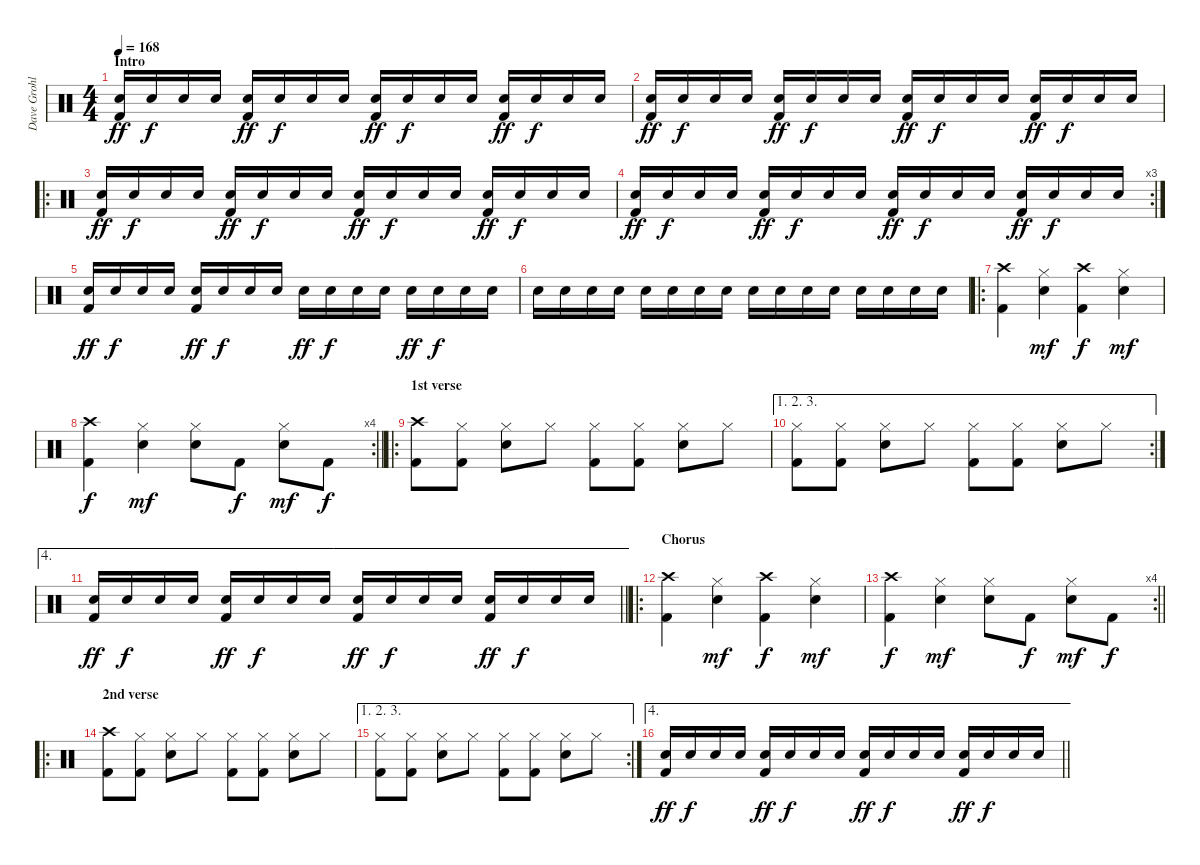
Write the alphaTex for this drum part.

\track ("Dave Grohl - Drums" "Dave Grohl") {instrument percussion}
\staff {score}
\articulation defaults
\ts (4 4)
\section ("" "Intro")
\tempo 168
\clef neutral
\ks c
("Electric Snare (hit)" "Kick (hit) 2").16{dy ff volume 12} "Electric Snare (hit)".16{dy f} "Electric Snare (hit)".16 "Electric Snare (hit)".16 ("Electric Snare (hit)" "Kick (hit) 2").16{dy ff} "Electric Snare (hit)".16{dy f} "Electric Snare (hit)".16 "Electric Snare (hit)".16 ("Electric Snare (hit)" "Kick (hit) 2").16{dy ff} "Electric Snare (hit)".16{dy f} "Electric Snare (hit)".16 "Electric Snare (hit)".16 ("Electric Snare (hit)" "Kick (hit) 2").16{dy ff} "Electric Snare (hit)".16{dy f} "Electric Snare (hit)".16 "Electric Snare (hit)".16 |
("Electric Snare (hit)" "Kick (hit) 2").16{dy ff} "Electric Snare (hit)".16{dy f} "Electric Snare (hit)".16 "Electric Snare (hit)".16 ("Electric Snare (hit)" "Kick (hit) 2").16{dy ff} "Electric Snare (hit)".16{dy f} "Electric Snare (hit)".16 "Electric Snare (hit)".16 ("Electric Snare (hit)" "Kick (hit) 2").16{dy ff} "Electric Snare (hit)".16{dy f} "Electric Snare (hit)".16 "Electric Snare (hit)".16 ("Electric Snare (hit)" "Kick (hit) 2").16{dy ff} "Electric Snare (hit)".16{dy f} "Electric Snare (hit)".16 "Electric Snare (hit)".16 |
\ro
("Electric Snare (hit)" "Kick (hit) 2").16{dy ff} "Electric Snare (hit)".16{dy f} "Electric Snare (hit)".16 "Electric Snare (hit)".16 ("Electric Snare (hit)" "Kick (hit) 2").16{dy ff} "Electric Snare (hit)".16{dy f} "Electric Snare (hit)".16 "Electric Snare (hit)".16 ("Electric Snare (hit)" "Kick (hit) 2").16{dy ff} "Electric Snare (hit)".16{dy f} "Electric Snare (hit)".16 "Electric Snare (hit)".16 ("Electric Snare (hit)" "Kick (hit) 2").16{dy ff} "Electric Snare (hit)".16{dy f} "Electric Snare (hit)".16 "Electric Snare (hit)".16 |
\rc 3
("Electric Snare (hit)" "Kick (hit) 2").16{dy ff} "Electric Snare (hit)".16{dy f} "Electric Snare (hit)".16 "Electric Snare (hit)".16 ("Electric Snare (hit)" "Kick (hit) 2").16{dy ff} "Electric Snare (hit)".16{dy f} "Electric Snare (hit)".16 "Electric Snare (hit)".16 ("Electric Snare (hit)" "Kick (hit) 2").16{dy ff} "Electric Snare (hit)".16{dy f} "Electric Snare (hit)".16 "Electric Snare (hit)".16 ("Electric Snare (hit)" "Kick (hit) 2").16{dy ff} "Electric Snare (hit)".16{dy f} "Electric Snare (hit)".16 "Electric Snare (hit)".16 |
("Electric Snare (hit)" "Kick (hit) 2").16{dy ff} "Electric Snare (hit)".16{dy f} "Electric Snare (hit)".16 "Electric Snare (hit)".16 ("Electric Snare (hit)" "Kick (hit) 2").16{dy ff} "Electric Snare (hit)".16{dy f} "Electric Snare (hit)".16 "Electric Snare (hit)".16 "Electric Snare (hit)".16{dy ff} "Electric Snare (hit)".16{dy f} "Electric Snare (hit)".16 "Electric Snare (hit)".16 "Electric Snare (hit)".16{dy ff} "Electric Snare (hit)".16{dy f} "Electric Snare (hit)".16 "Electric Snare (hit)".16 |
"Electric Snare (hit)".16 "Electric Snare (hit)".16 "Electric Snare (hit)".16 "Electric Snare (hit)".16 "Electric Snare (hit)".16 "Electric Snare (hit)".16 "Electric Snare (hit)".16 "Electric Snare (hit)".16 "Electric Snare (hit)".16 "Electric Snare (hit)".16 "Electric Snare (hit)".16 "Electric Snare (hit)".16 "Electric Snare (hit)".16 "Electric Snare (hit)".16 "Electric Snare (hit)".16 "Electric Snare (hit)".16 |
\ro
("Crash high (hit)" "Kick (hit) 2").4{volume 13} ("Hi-Hat (closed)" "Electric Snare (hit)").4{dy mf} ("Crash high (hit)" "Kick (hit) 2").4{dy f} ("Hi-Hat (closed)" "Electric Snare (hit)").4{dy mf} |
\rc 4
\barLineRight lightlight
("Crash high (hit)" "Kick (hit) 2").4{dy f} ("Hi-Hat (closed)" "Electric Snare (hit)").4{dy mf} ("Hi-Hat (closed)" "Electric Snare (hit)").8 "Kick (hit) 2".8{dy f} ("Hi-Hat (closed)" "Electric Snare (hit)").8{dy mf} "Kick (hit) 2".8{dy f} |
\ro
\section ("" "1st verse")
("Crash high (hit)" "Kick (hit) 2").8 ("Hi-Hat (closed)" "Kick (hit) 2").8 ("Hi-Hat (closed)" "Electric Snare (hit)").8 "Hi-Hat (closed)".8 ("Hi-Hat (closed)" "Kick (hit) 2").8 ("Hi-Hat (closed)" "Kick (hit) 2").8 ("Hi-Hat (closed)" "Electric Snare (hit)").8 "Hi-Hat (closed)".8 |
\ae (1 2 3)
\rc 2
("Hi-Hat (closed)" "Kick (hit) 2").8 ("Hi-Hat (closed)" "Kick (hit) 2").8 ("Hi-Hat (closed)" "Electric Snare (hit)").8 "Hi-Hat (closed)".8 ("Hi-Hat (closed)" "Kick (hit) 2").8 ("Hi-Hat (closed)" "Kick (hit) 2").8 ("Hi-Hat (closed)" "Electric Snare (hit)").8 "Hi-Hat (closed)".8 |
\ae 4
\barLineRight lightlight
("Electric Snare (hit)" "Kick (hit) 2").16{dy ff} "Electric Snare (hit)".16{dy f} "Electric Snare (hit)".16 "Electric Snare (hit)".16 ("Electric Snare (hit)" "Kick (hit) 2").16{dy ff} "Electric Snare (hit)".16{dy f} "Electric Snare (hit)".16 "Electric Snare (hit)".16 ("Electric Snare (hit)" "Kick (hit) 2").16{dy ff} "Electric Snare (hit)".16{dy f} "Electric Snare (hit)".16 "Electric Snare (hit)".16 ("Electric Snare (hit)" "Kick (hit) 2").16{dy ff} "Electric Snare (hit)".16{dy f} "Electric Snare (hit)".16 "Electric Snare (hit)".16 |
\ro
\section ("" "Chorus")
("Crash high (hit)" "Kick (hit) 2").4{volume 13} ("Hi-Hat (closed)" "Electric Snare (hit)").4{dy mf} ("Crash high (hit)" "Kick (hit) 2").4{dy f} ("Hi-Hat (closed)" "Electric Snare (hit)").4{dy mf} |
\rc 4
\barLineRight lightlight
("Crash high (hit)" "Kick (hit) 2").4{dy f} ("Hi-Hat (closed)" "Electric Snare (hit)").4{dy mf} ("Hi-Hat (closed)" "Electric Snare (hit)").8 "Kick (hit) 2".8{dy f} ("Hi-Hat (closed)" "Electric Snare (hit)").8{dy mf} "Kick (hit) 2".8{dy f} |
\ro
\section ("" "2nd verse")
("Crash high (hit)" "Kick (hit) 2").8 ("Hi-Hat (closed)" "Kick (hit) 2").8 ("Hi-Hat (closed)" "Electric Snare (hit)").8 "Hi-Hat (closed)".8 ("Hi-Hat (closed)" "Kick (hit) 2").8 ("Hi-Hat (closed)" "Kick (hit) 2").8 ("Hi-Hat (closed)" "Electric Snare (hit)").8 "Hi-Hat (closed)".8 |
\ae (1 2 3)
\rc 2
("Hi-Hat (closed)" "Kick (hit) 2").8 ("Hi-Hat (closed)" "Kick (hit) 2").8 ("Hi-Hat (closed)" "Electric Snare (hit)").8 "Hi-Hat (closed)".8 ("Hi-Hat (closed)" "Kick (hit) 2").8 ("Hi-Hat (closed)" "Kick (hit) 2").8 ("Hi-Hat (closed)" "Electric Snare (hit)").8 "Hi-Hat (closed)".8 |
\ae 4
\barLineRight lightlight
("Electric Snare (hit)" "Kick (hit) 2").16{dy ff} "Electric Snare (hit)".16{dy f} "Electric Snare (hit)".16 "Electric Snare (hit)".16 ("Electric Snare (hit)" "Kick (hit) 2").16{dy ff} "Electric Snare (hit)".16{dy f} "Electric Snare (hit)".16 "Electric Snare (hit)".16 ("Electric Snare (hit)" "Kick (hit) 2").16{dy ff} "Electric Snare (hit)".16{dy f} "Electric Snare (hit)".16 "Electric Snare (hit)".16 ("Electric Snare (hit)" "Kick (hit) 2").16{dy ff} "Electric Snare (hit)".16{dy f} "Electric Snare (hit)".16 "Electric Snare (hit)".16
